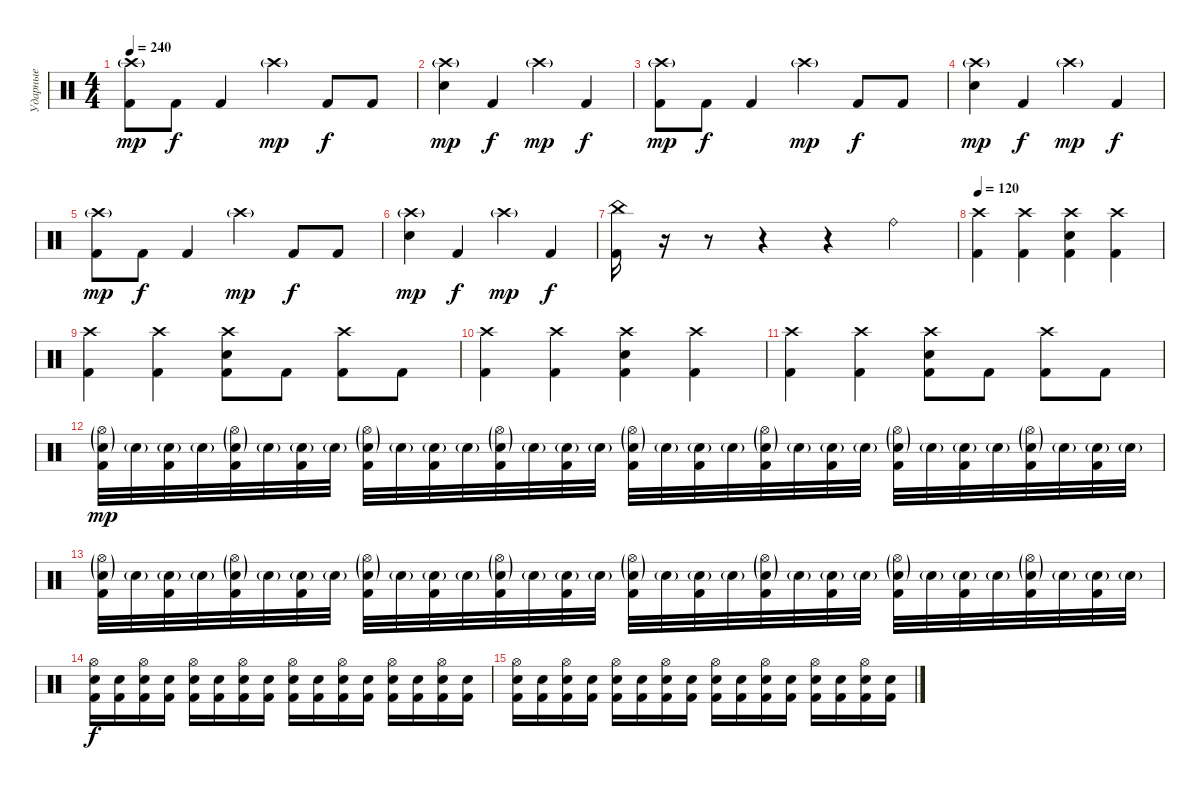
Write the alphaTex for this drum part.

\track ("Ударные" "Ударные") {instrument percussion}
\staff {score}
\articulation defaults
\ts (4 4)
\tempo 240
\clef neutral
\ks c
("Crash high (hit)"{g} "Kick (hit) 2").8{dy mp} "Kick (hit) 2".8{dy f} "Kick (hit) 2".4 "Crash high (hit)"{g}.4{dy mp} "Kick (hit) 2".8{dy f} "Kick (hit) 2".8 |
("Crash high (hit)"{g} "Electric Snare (hit)").4{dy mp} "Kick (hit) 2".4{dy f} "Crash high (hit)"{g}.4{dy mp} "Kick (hit) 2".4{dy f} |
("Crash high (hit)"{g} "Kick (hit) 2").8{dy mp} "Kick (hit) 2".8{dy f} "Kick (hit) 2".4 "Crash high (hit)"{g}.4{dy mp} "Kick (hit) 2".8{dy f} "Kick (hit) 2".8 |
("Crash high (hit)"{g} "Electric Snare (hit)").4{dy mp} "Kick (hit) 2".4{dy f} "Crash high (hit)"{g}.4{dy mp} "Kick (hit) 2".4{dy f} |
("Crash high (hit)"{g} "Kick (hit) 2").8{dy mp} "Kick (hit) 2".8{dy f} "Kick (hit) 2".4 "Crash high (hit)"{g}.4{dy mp} "Kick (hit) 2".8{dy f} "Kick (hit) 2".8 |
("Crash high (hit)"{g} "Electric Snare (hit)").4{dy mp} "Kick (hit) 2".4{dy f} "Crash high (hit)"{g}.4{dy mp} "Kick (hit) 2".4{dy f} |
("China (hit)" "Kick (hit) 2").16 r.16 r.8 r.4 r.4 "Ride (bell)".4 |
\tempo 120
("Crash high (hit)" "Kick (hit) 2").4 ("Crash high (hit)" "Kick (hit) 2").4 ("Crash high (hit)" "Electric Snare (hit)" "Kick (hit) 2").4 ("Crash high (hit)" "Kick (hit) 2").4 |
("Crash high (hit)" "Kick (hit) 2").4 ("Crash high (hit)" "Kick (hit) 2").4 ("Crash high (hit)" "Electric Snare (hit)" "Kick (hit) 2").8 "Kick (hit) 2".8 ("Crash high (hit)" "Kick (hit) 2").8 "Kick (hit) 2".8 |
("Crash high (hit)" "Kick (hit) 2").4 ("Crash high (hit)" "Kick (hit) 2").4 ("Crash high (hit)" "Electric Snare (hit)" "Kick (hit) 2").4 ("Crash high (hit)" "Kick (hit) 2").4 |
("Crash high (hit)" "Kick (hit) 2").4 ("Crash high (hit)" "Kick (hit) 2").4 ("Crash high (hit)" "Electric Snare (hit)" "Kick (hit) 2").8 "Kick (hit) 2".8 ("Crash high (hit)" "Kick (hit) 2").8 "Kick (hit) 2".8 |
("Hi-Hat (open)"{g} "Electric Snare (hit)"{g} "Kick (hit) 2").32{dy mp} "Electric Snare (hit)"{g}.32 ("Electric Snare (hit)"{g} "Kick (hit) 2").32 "Electric Snare (hit)"{g}.32 ("Hi-Hat (open)"{g} "Electric Snare (hit)"{g} "Kick (hit) 2").32 "Electric Snare (hit)"{g}.32 ("Electric Snare (hit)"{g} "Kick (hit) 2").32 "Electric Snare (hit)"{g}.32 ("Hi-Hat (open)"{g} "Electric Snare (hit)"{g} "Kick (hit) 2").32 "Electric Snare (hit)"{g}.32 ("Electric Snare (hit)"{g} "Kick (hit) 2").32 "Electric Snare (hit)"{g}.32 ("Hi-Hat (open)"{g} "Electric Snare (hit)"{g} "Kick (hit) 2").32 "Electric Snare (hit)"{g}.32 ("Electric Snare (hit)"{g} "Kick (hit) 2").32 "Electric Snare (hit)"{g}.32 ("Hi-Hat (open)"{g} "Electric Snare (hit)"{g} "Kick (hit) 2").32 "Electric Snare (hit)"{g}.32 ("Electric Snare (hit)"{g} "Kick (hit) 2").32 "Electric Snare (hit)"{g}.32 ("Hi-Hat (open)"{g} "Electric Snare (hit)"{g} "Kick (hit) 2").32 "Electric Snare (hit)"{g}.32 ("Electric Snare (hit)"{g} "Kick (hit) 2").32 "Electric Snare (hit)"{g}.32 ("Hi-Hat (open)"{g} "Electric Snare (hit)"{g} "Kick (hit) 2").32 "Electric Snare (hit)"{g}.32 ("Electric Snare (hit)"{g} "Kick (hit) 2").32 "Electric Snare (hit)"{g}.32 ("Hi-Hat (open)"{g} "Electric Snare (hit)"{g} "Kick (hit) 2").32 "Electric Snare (hit)"{g}.32 ("Electric Snare (hit)"{g} "Kick (hit) 2").32 "Electric Snare (hit)"{g}.32 |
("Hi-Hat (open)"{g} "Electric Snare (hit)"{g} "Kick (hit) 2").32 "Electric Snare (hit)"{g}.32 ("Electric Snare (hit)"{g} "Kick (hit) 2").32 "Electric Snare (hit)"{g}.32 ("Hi-Hat (open)"{g} "Electric Snare (hit)"{g} "Kick (hit) 2").32 "Electric Snare (hit)"{g}.32 ("Electric Snare (hit)"{g} "Kick (hit) 2").32 "Electric Snare (hit)"{g}.32 ("Hi-Hat (open)"{g} "Electric Snare (hit)"{g} "Kick (hit) 2").32 "Electric Snare (hit)"{g}.32 ("Electric Snare (hit)"{g} "Kick (hit) 2").32 "Electric Snare (hit)"{g}.32 ("Hi-Hat (open)"{g} "Electric Snare (hit)"{g} "Kick (hit) 2").32 "Electric Snare (hit)"{g}.32 ("Electric Snare (hit)"{g} "Kick (hit) 2").32 "Electric Snare (hit)"{g}.32 ("Hi-Hat (open)"{g} "Electric Snare (hit)"{g} "Kick (hit) 2").32 "Electric Snare (hit)"{g}.32 ("Electric Snare (hit)"{g} "Kick (hit) 2").32 "Electric Snare (hit)"{g}.32 ("Hi-Hat (open)"{g} "Electric Snare (hit)"{g} "Kick (hit) 2").32 "Electric Snare (hit)"{g}.32 ("Electric Snare (hit)"{g} "Kick (hit) 2").32 "Electric Snare (hit)"{g}.32 ("Hi-Hat (open)"{g} "Electric Snare (hit)"{g} "Kick (hit) 2").32 "Electric Snare (hit)"{g}.32 ("Electric Snare (hit)"{g} "Kick (hit) 2").32 "Electric Snare (hit)"{g}.32 ("Hi-Hat (open)"{g} "Electric Snare (hit)"{g} "Kick (hit) 2").32 "Electric Snare (hit)"{g}.32 ("Electric Snare (hit)"{g} "Kick (hit) 2").32 "Electric Snare (hit)"{g}.32 |
("Hi-Hat (open)" "Electric Snare (hit)" "Kick (hit) 2").16{dy f} ("Electric Snare (hit)" "Kick (hit) 2").16 ("Hi-Hat (open)" "Electric Snare (hit)" "Kick (hit) 2").16 ("Electric Snare (hit)" "Kick (hit) 2").16 ("Hi-Hat (open)" "Electric Snare (hit)" "Kick (hit) 2").16 ("Electric Snare (hit)" "Kick (hit) 2").16 ("Hi-Hat (open)" "Electric Snare (hit)" "Kick (hit) 2").16 ("Electric Snare (hit)" "Kick (hit) 2").16 ("Hi-Hat (open)" "Electric Snare (hit)" "Kick (hit) 2").16 ("Electric Snare (hit)" "Kick (hit) 2").16 ("Hi-Hat (open)" "Electric Snare (hit)" "Kick (hit) 2").16 ("Electric Snare (hit)" "Kick (hit) 2").16 ("Hi-Hat (open)" "Electric Snare (hit)" "Kick (hit) 2").16 ("Electric Snare (hit)" "Kick (hit) 2").16 ("Hi-Hat (open)" "Electric Snare (hit)" "Kick (hit) 2").16 ("Electric Snare (hit)" "Kick (hit) 2").16 |
("Hi-Hat (open)" "Electric Snare (hit)" "Kick (hit) 2").16 ("Electric Snare (hit)" "Kick (hit) 2").16 ("Hi-Hat (open)" "Electric Snare (hit)" "Kick (hit) 2").16 ("Electric Snare (hit)" "Kick (hit) 2").16 ("Hi-Hat (open)" "Electric Snare (hit)" "Kick (hit) 2").16 ("Electric Snare (hit)" "Kick (hit) 2").16 ("Hi-Hat (open)" "Electric Snare (hit)" "Kick (hit) 2").16 ("Electric Snare (hit)" "Kick (hit) 2").16 ("Hi-Hat (open)" "Electric Snare (hit)" "Kick (hit) 2").16 ("Electric Snare (hit)" "Kick (hit) 2").16 ("Hi-Hat (open)" "Electric Snare (hit)" "Kick (hit) 2").16 ("Electric Snare (hit)" "Kick (hit) 2").16 ("Hi-Hat (open)" "Electric Snare (hit)" "Kick (hit) 2").16 ("Electric Snare (hit)" "Kick (hit) 2").16 ("Hi-Hat (open)" "Electric Snare (hit)" "Kick (hit) 2").16 ("Electric Snare (hit)" "Kick (hit) 2").16
